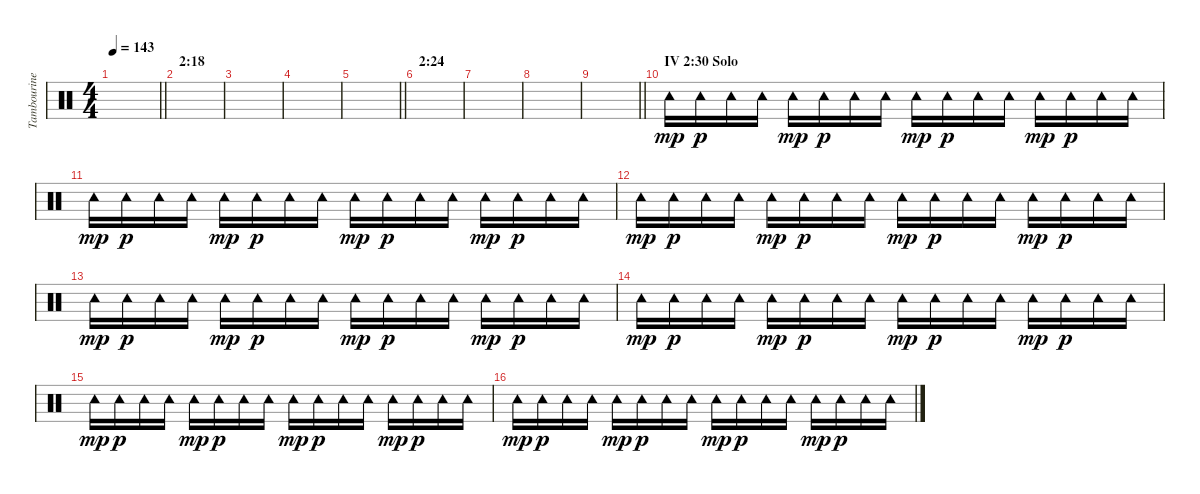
\track ("Tambourine ( I Verse + IV Solo)" "Tambourine") {instrument percussion}
\staff {score}
\articulation defaults
\ts (4 4)
\tempo 143
\clef neutral
\barLineRight lightlight
\ks c
|
\section ("" "2:18")
|
|
|
\barLineRight lightlight
|
\section ("" "2:24")
|
|
|
\barLineRight lightlight
|
\section ("" "IV 2:30 Solo")
"Tambourine (hit)".16{dy mp} "Tambourine (hit)".16{dy p} "Tambourine (hit)".16 "Tambourine (hit)".16 "Tambourine (hit)".16{dy mp} "Tambourine (hit)".16{dy p} "Tambourine (hit)".16 "Tambourine (hit)".16 "Tambourine (hit)".16{dy mp} "Tambourine (hit)".16{dy p} "Tambourine (hit)".16 "Tambourine (hit)".16 "Tambourine (hit)".16{dy mp} "Tambourine (hit)".16{dy p} "Tambourine (hit)".16 "Tambourine (hit)".16 |
"Tambourine (hit)".16{dy mp} "Tambourine (hit)".16{dy p} "Tambourine (hit)".16 "Tambourine (hit)".16 "Tambourine (hit)".16{dy mp} "Tambourine (hit)".16{dy p} "Tambourine (hit)".16 "Tambourine (hit)".16 "Tambourine (hit)".16{dy mp} "Tambourine (hit)".16{dy p} "Tambourine (hit)".16 "Tambourine (hit)".16 "Tambourine (hit)".16{dy mp} "Tambourine (hit)".16{dy p} "Tambourine (hit)".16 "Tambourine (hit)".16 |
"Tambourine (hit)".16{dy mp} "Tambourine (hit)".16{dy p} "Tambourine (hit)".16 "Tambourine (hit)".16 "Tambourine (hit)".16{dy mp} "Tambourine (hit)".16{dy p} "Tambourine (hit)".16 "Tambourine (hit)".16 "Tambourine (hit)".16{dy mp} "Tambourine (hit)".16{dy p} "Tambourine (hit)".16 "Tambourine (hit)".16 "Tambourine (hit)".16{dy mp} "Tambourine (hit)".16{dy p} "Tambourine (hit)".16 "Tambourine (hit)".16 |
"Tambourine (hit)".16{dy mp} "Tambourine (hit)".16{dy p} "Tambourine (hit)".16 "Tambourine (hit)".16 "Tambourine (hit)".16{dy mp} "Tambourine (hit)".16{dy p} "Tambourine (hit)".16 "Tambourine (hit)".16 "Tambourine (hit)".16{dy mp} "Tambourine (hit)".16{dy p} "Tambourine (hit)".16 "Tambourine (hit)".16 "Tambourine (hit)".16{dy mp} "Tambourine (hit)".16{dy p} "Tambourine (hit)".16 "Tambourine (hit)".16 |
"Tambourine (hit)".16{dy mp} "Tambourine (hit)".16{dy p} "Tambourine (hit)".16 "Tambourine (hit)".16 "Tambourine (hit)".16{dy mp} "Tambourine (hit)".16{dy p} "Tambourine (hit)".16 "Tambourine (hit)".16 "Tambourine (hit)".16{dy mp} "Tambourine (hit)".16{dy p} "Tambourine (hit)".16 "Tambourine (hit)".16 "Tambourine (hit)".16{dy mp} "Tambourine (hit)".16{dy p} "Tambourine (hit)".16 "Tambourine (hit)".16 |
"Tambourine (hit)".16{dy mp} "Tambourine (hit)".16{dy p} "Tambourine (hit)".16 "Tambourine (hit)".16 "Tambourine (hit)".16{dy mp} "Tambourine (hit)".16{dy p} "Tambourine (hit)".16 "Tambourine (hit)".16 "Tambourine (hit)".16{dy mp} "Tambourine (hit)".16{dy p} "Tambourine (hit)".16 "Tambourine (hit)".16 "Tambourine (hit)".16{dy mp} "Tambourine (hit)".16{dy p} "Tambourine (hit)".16 "Tambourine (hit)".16 |
"Tambourine (hit)".16{dy mp} "Tambourine (hit)".16{dy p} "Tambourine (hit)".16 "Tambourine (hit)".16 "Tambourine (hit)".16{dy mp} "Tambourine (hit)".16{dy p} "Tambourine (hit)".16 "Tambourine (hit)".16 "Tambourine (hit)".16{dy mp} "Tambourine (hit)".16{dy p} "Tambourine (hit)".16 "Tambourine (hit)".16 "Tambourine (hit)".16{dy mp} "Tambourine (hit)".16{dy p} "Tambourine (hit)".16 "Tambourine (hit)".16
